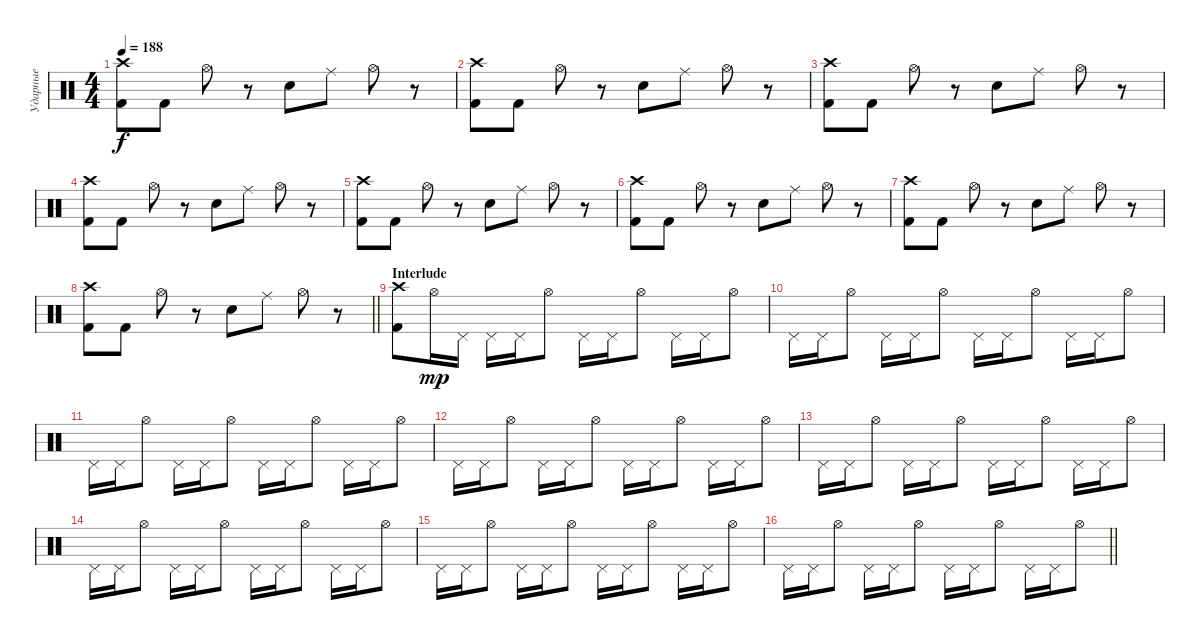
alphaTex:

\track ("Ударные" "Ударные") {instrument percussion}
\staff {score}
\articulation defaults
\ts (4 4)
\tempo 188
\clef neutral
\ks c
("Crash high (hit)" "Kick (hit) 2").8{dy f} "Kick (hit) 2".8 "Hi-Hat (open)".8 r.8 "Electric Snare (hit)".8 "Ride (middle)".8 "Hi-Hat (open)".8 r.8 |
("Crash high (hit)" "Kick (hit) 2").8 "Kick (hit) 2".8 "Hi-Hat (open)".8 r.8 "Electric Snare (hit)".8 "Ride (middle)".8 "Hi-Hat (open)".8 r.8 |
("Crash high (hit)" "Kick (hit) 2").8 "Kick (hit) 2".8 "Hi-Hat (open)".8 r.8 "Electric Snare (hit)".8 "Ride (middle)".8 "Hi-Hat (open)".8 r.8 |
("Crash high (hit)" "Kick (hit) 2").8 "Kick (hit) 2".8 "Hi-Hat (open)".8 r.8 "Electric Snare (hit)".8 "Ride (middle)".8 "Hi-Hat (open)".8 r.8 |
("Crash high (hit)" "Kick (hit) 2").8 "Kick (hit) 2".8 "Hi-Hat (open)".8 r.8 "Electric Snare (hit)".8 "Ride (middle)".8 "Hi-Hat (open)".8 r.8 |
("Crash high (hit)" "Kick (hit) 2").8 "Kick (hit) 2".8 "Hi-Hat (open)".8 r.8 "Electric Snare (hit)".8 "Ride (middle)".8 "Hi-Hat (open)".8 r.8 |
("Crash high (hit)" "Kick (hit) 2").8 "Kick (hit) 2".8 "Hi-Hat (open)".8 r.8 "Electric Snare (hit)".8 "Ride (middle)".8 "Hi-Hat (open)".8 r.8 |
\barLineRight lightlight
("Crash high (hit)" "Kick (hit) 2").8 "Kick (hit) 2".8 "Hi-Hat (open)".8 r.8 "Electric Snare (hit)".8 "Ride (middle)".8 "Hi-Hat (open)".8 r.8 |
\section ("" "Interlude")
("Crash high (hit)" "Kick (hit) 2").8 "Hi-Hat (open)".16{dy mp} "Pedal Hi-Hat (hit)".16 "Pedal Hi-Hat (hit)".16 "Pedal Hi-Hat (hit)".16 "Hi-Hat (open)".8 "Pedal Hi-Hat (hit)".16 "Pedal Hi-Hat (hit)".16 "Hi-Hat (open)".8 "Pedal Hi-Hat (hit)".16 "Pedal Hi-Hat (hit)".16 "Hi-Hat (open)".8 |
"Pedal Hi-Hat (hit)".16 "Pedal Hi-Hat (hit)".16 "Hi-Hat (open)".8 "Pedal Hi-Hat (hit)".16 "Pedal Hi-Hat (hit)".16 "Hi-Hat (open)".8 "Pedal Hi-Hat (hit)".16 "Pedal Hi-Hat (hit)".16 "Hi-Hat (open)".8 "Pedal Hi-Hat (hit)".16 "Pedal Hi-Hat (hit)".16 "Hi-Hat (open)".8 |
"Pedal Hi-Hat (hit)".16 "Pedal Hi-Hat (hit)".16 "Hi-Hat (open)".8 "Pedal Hi-Hat (hit)".16 "Pedal Hi-Hat (hit)".16 "Hi-Hat (open)".8 "Pedal Hi-Hat (hit)".16 "Pedal Hi-Hat (hit)".16 "Hi-Hat (open)".8 "Pedal Hi-Hat (hit)".16 "Pedal Hi-Hat (hit)".16 "Hi-Hat (open)".8 |
"Pedal Hi-Hat (hit)".16 "Pedal Hi-Hat (hit)".16 "Hi-Hat (open)".8 "Pedal Hi-Hat (hit)".16 "Pedal Hi-Hat (hit)".16 "Hi-Hat (open)".8 "Pedal Hi-Hat (hit)".16 "Pedal Hi-Hat (hit)".16 "Hi-Hat (open)".8 "Pedal Hi-Hat (hit)".16 "Pedal Hi-Hat (hit)".16 "Hi-Hat (open)".8 |
"Pedal Hi-Hat (hit)".16 "Pedal Hi-Hat (hit)".16 "Hi-Hat (open)".8 "Pedal Hi-Hat (hit)".16 "Pedal Hi-Hat (hit)".16 "Hi-Hat (open)".8 "Pedal Hi-Hat (hit)".16 "Pedal Hi-Hat (hit)".16 "Hi-Hat (open)".8 "Pedal Hi-Hat (hit)".16 "Pedal Hi-Hat (hit)".16 "Hi-Hat (open)".8 |
"Pedal Hi-Hat (hit)".16 "Pedal Hi-Hat (hit)".16 "Hi-Hat (open)".8 "Pedal Hi-Hat (hit)".16 "Pedal Hi-Hat (hit)".16 "Hi-Hat (open)".8 "Pedal Hi-Hat (hit)".16 "Pedal Hi-Hat (hit)".16 "Hi-Hat (open)".8 "Pedal Hi-Hat (hit)".16 "Pedal Hi-Hat (hit)".16 "Hi-Hat (open)".8 |
"Pedal Hi-Hat (hit)".16 "Pedal Hi-Hat (hit)".16 "Hi-Hat (open)".8 "Pedal Hi-Hat (hit)".16 "Pedal Hi-Hat (hit)".16 "Hi-Hat (open)".8 "Pedal Hi-Hat (hit)".16 "Pedal Hi-Hat (hit)".16 "Hi-Hat (open)".8 "Pedal Hi-Hat (hit)".16 "Pedal Hi-Hat (hit)".16 "Hi-Hat (open)".8 |
\barLineRight lightlight "Pedal Hi-Hat (hit)".16 "Pedal Hi-Hat (hit)".16 "Hi-Hat (open)".8 "Pedal Hi-Hat (hit)".16 "Pedal Hi-Hat (hit)".16 "Hi-Hat (open)".8 "Pedal Hi-Hat (hit)".16 "Pedal Hi-Hat (hit)".16 "Hi-Hat (open)".8 "Pedal Hi-Hat (hit)".16 "Pedal Hi-Hat (hit)".16 "Hi-Hat (open)".8
